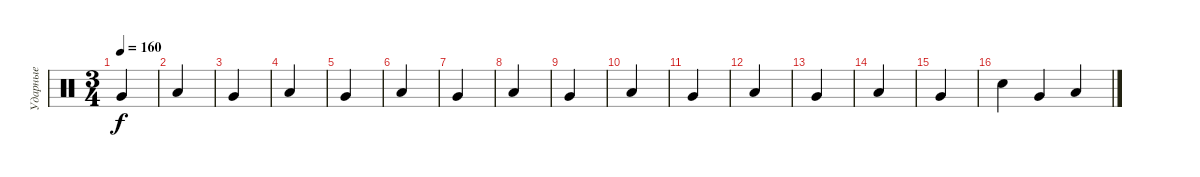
\track ("Ударные" "Ударные") {instrument percussion}
\staff {score}
\articulation defaults
\ts (3 4)
\tempo 160
\clef neutral
\ks c "Very Low Tom (hit)".4{dy f}
|
"Low Floor Tom (hit)".4 |
"Very Low Tom (hit)".4 |
"Low Floor Tom (hit)".4 |
"Very Low Tom (hit)".4 |
"Low Floor Tom (hit)".4 |
"Very Low Tom (hit)".4 |
"Low Floor Tom (hit)".4 |
"Very Low Tom (hit)".4 |
"Low Floor Tom (hit)".4 |
"Very Low Tom (hit)".4 |
"Low Floor Tom (hit)".4 |
"Very Low Tom (hit)".4 |
"Low Floor Tom (hit)".4 |
"Very Low Tom (hit)".4 |
"Snare (hit) 2".4 "Very Low Tom (hit)".4 "Low Floor Tom (hit)".4
